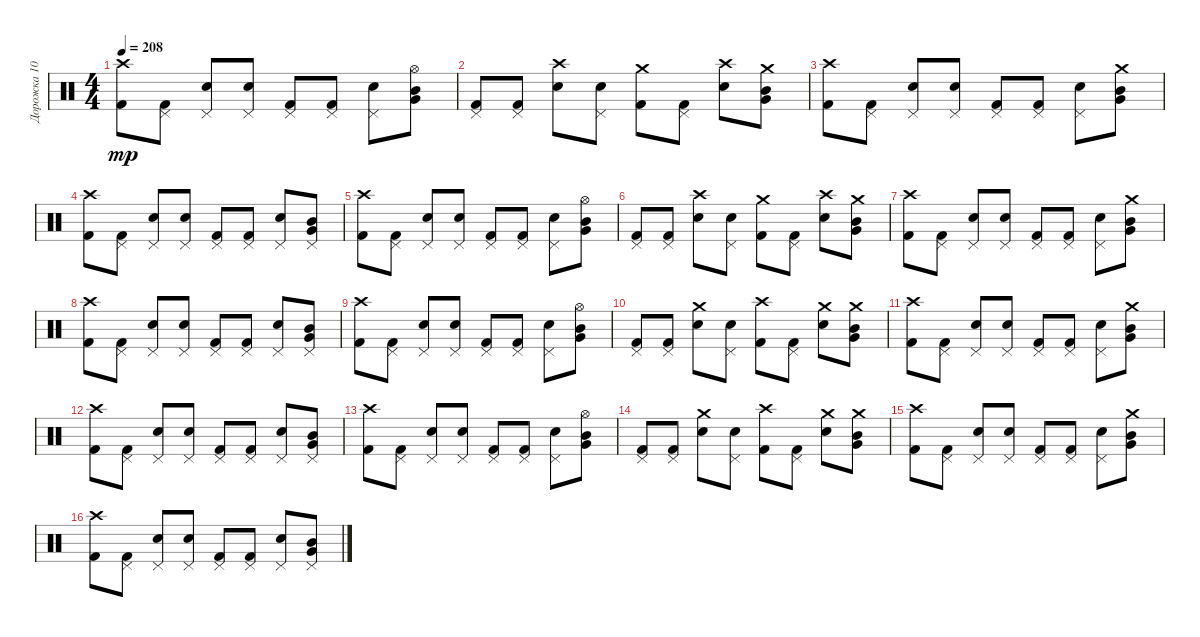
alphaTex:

\track ("Дорожка 10" "Дорожка 10") {instrument percussion}
\staff {score}
\articulation defaults
\ts (4 4)
\tempo 208
\clef neutral
\ks c
("Kick (hit) 2" "Crash high (hit)").8{dy mp} ("Kick (hit) 2" "Pedal Hi-Hat (hit)").8 ("Snare (hit) 2" "Pedal Hi-Hat (hit)").8 ("Snare (hit) 2" "Pedal Hi-Hat (hit)").8 ("Kick (hit) 2" "Pedal Hi-Hat (hit)").8 ("Kick (hit) 2" "Pedal Hi-Hat (hit)").8 ("Snare (hit) 2" "Pedal Hi-Hat (hit)").8 ("Mid Tom (hit)" "Very Low Tom (hit)" "Hi-Hat (open)").8 |
("Kick (hit) 2" "Pedal Hi-Hat (hit)").8 ("Kick (hit) 2" "Pedal Hi-Hat (hit)").8 ("Snare (hit) 2" "Crash high (hit)").8 ("Snare (hit) 2" "Pedal Hi-Hat (hit)").8 ("Kick (hit) 2" "Crash medium (hit)").8 ("Kick (hit) 2" "Pedal Hi-Hat (hit)").8 ("Snare (hit) 2" "Crash high (hit)").8 ("Mid Tom (hit)" "Very Low Tom (hit)" "Crash medium (hit)").8 |
("Kick (hit) 2" "Crash high (hit)").8 ("Kick (hit) 2" "Pedal Hi-Hat (hit)").8 ("Snare (hit) 2" "Pedal Hi-Hat (hit)").8 ("Snare (hit) 2" "Pedal Hi-Hat (hit)").8 ("Kick (hit) 2" "Pedal Hi-Hat (hit)").8 ("Kick (hit) 2" "Pedal Hi-Hat (hit)").8 ("Snare (hit) 2" "Pedal Hi-Hat (hit)").8 ("Mid Tom (hit)" "Very Low Tom (hit)" "Crash medium (hit)").8 |
("Kick (hit) 2" "Crash high (hit)").8 ("Kick (hit) 2" "Pedal Hi-Hat (hit)").8 ("Snare (hit) 2" "Pedal Hi-Hat (hit)").8 ("Snare (hit) 2" "Pedal Hi-Hat (hit)").8 ("Kick (hit) 2" "Pedal Hi-Hat (hit)").8 ("Kick (hit) 2" "Pedal Hi-Hat (hit)").8 ("Snare (hit) 2" "Pedal Hi-Hat (hit)").8 ("Mid Tom (hit)" "Very Low Tom (hit)" "Pedal Hi-Hat (hit)").8 |
("Kick (hit) 2" "Crash high (hit)").8 ("Kick (hit) 2" "Pedal Hi-Hat (hit)").8 ("Snare (hit) 2" "Pedal Hi-Hat (hit)").8 ("Snare (hit) 2" "Pedal Hi-Hat (hit)").8 ("Kick (hit) 2" "Pedal Hi-Hat (hit)").8 ("Kick (hit) 2" "Pedal Hi-Hat (hit)").8 ("Snare (hit) 2" "Pedal Hi-Hat (hit)").8 ("Mid Tom (hit)" "Very Low Tom (hit)" "Hi-Hat (open)").8 |
("Kick (hit) 2" "Pedal Hi-Hat (hit)").8 ("Kick (hit) 2" "Pedal Hi-Hat (hit)").8 ("Snare (hit) 2" "Crash high (hit)").8 ("Snare (hit) 2" "Pedal Hi-Hat (hit)").8 ("Kick (hit) 2" "Crash medium (hit)").8 ("Kick (hit) 2" "Pedal Hi-Hat (hit)").8 ("Snare (hit) 2" "Crash high (hit)").8 ("Mid Tom (hit)" "Very Low Tom (hit)" "Crash medium (hit)").8 |
("Kick (hit) 2" "Crash high (hit)").8 ("Kick (hit) 2" "Pedal Hi-Hat (hit)").8 ("Snare (hit) 2" "Pedal Hi-Hat (hit)").8 ("Snare (hit) 2" "Pedal Hi-Hat (hit)").8 ("Kick (hit) 2" "Pedal Hi-Hat (hit)").8 ("Kick (hit) 2" "Pedal Hi-Hat (hit)").8 ("Snare (hit) 2" "Pedal Hi-Hat (hit)").8 ("Mid Tom (hit)" "Very Low Tom (hit)" "Crash medium (hit)").8 |
("Kick (hit) 2" "Crash high (hit)").8 ("Kick (hit) 2" "Pedal Hi-Hat (hit)").8 ("Snare (hit) 2" "Pedal Hi-Hat (hit)").8 ("Snare (hit) 2" "Pedal Hi-Hat (hit)").8 ("Kick (hit) 2" "Pedal Hi-Hat (hit)").8 ("Kick (hit) 2" "Pedal Hi-Hat (hit)").8 ("Snare (hit) 2" "Pedal Hi-Hat (hit)").8 ("Mid Tom (hit)" "Very Low Tom (hit)" "Pedal Hi-Hat (hit)").8 |
("Kick (hit) 2" "Crash high (hit)").8 ("Kick (hit) 2" "Pedal Hi-Hat (hit)").8 ("Snare (hit) 2" "Pedal Hi-Hat (hit)").8 ("Snare (hit) 2" "Pedal Hi-Hat (hit)").8 ("Kick (hit) 2" "Pedal Hi-Hat (hit)").8 ("Kick (hit) 2" "Pedal Hi-Hat (hit)").8 ("Snare (hit) 2" "Pedal Hi-Hat (hit)").8 ("Mid Tom (hit)" "Very Low Tom (hit)" "Hi-Hat (open)").8 |
("Kick (hit) 2" "Pedal Hi-Hat (hit)").8 ("Kick (hit) 2" "Pedal Hi-Hat (hit)").8 ("Snare (hit) 2" "Crash medium (hit)").8 ("Snare (hit) 2" "Pedal Hi-Hat (hit)").8 ("Kick (hit) 2" "Crash high (hit)").8 ("Kick (hit) 2" "Pedal Hi-Hat (hit)").8 ("Snare (hit) 2" "Crash medium (hit)").8 ("Mid Tom (hit)" "Very Low Tom (hit)" "Crash medium (hit)").8 |
("Kick (hit) 2" "Crash high (hit)").8 ("Kick (hit) 2" "Pedal Hi-Hat (hit)").8 ("Snare (hit) 2" "Pedal Hi-Hat (hit)").8 ("Snare (hit) 2" "Pedal Hi-Hat (hit)").8 ("Kick (hit) 2" "Pedal Hi-Hat (hit)").8 ("Kick (hit) 2" "Pedal Hi-Hat (hit)").8 ("Snare (hit) 2" "Pedal Hi-Hat (hit)").8 ("Mid Tom (hit)" "Very Low Tom (hit)" "Crash medium (hit)").8 |
("Kick (hit) 2" "Crash high (hit)").8 ("Kick (hit) 2" "Pedal Hi-Hat (hit)").8 ("Snare (hit) 2" "Pedal Hi-Hat (hit)").8 ("Snare (hit) 2" "Pedal Hi-Hat (hit)").8 ("Kick (hit) 2" "Pedal Hi-Hat (hit)").8 ("Kick (hit) 2" "Pedal Hi-Hat (hit)").8 ("Snare (hit) 2" "Pedal Hi-Hat (hit)").8 ("Mid Tom (hit)" "Very Low Tom (hit)" "Pedal Hi-Hat (hit)").8 |
("Kick (hit) 2" "Crash high (hit)").8 ("Kick (hit) 2" "Pedal Hi-Hat (hit)").8 ("Snare (hit) 2" "Pedal Hi-Hat (hit)").8 ("Snare (hit) 2" "Pedal Hi-Hat (hit)").8 ("Kick (hit) 2" "Pedal Hi-Hat (hit)").8 ("Kick (hit) 2" "Pedal Hi-Hat (hit)").8 ("Snare (hit) 2" "Pedal Hi-Hat (hit)").8 ("Mid Tom (hit)" "Very Low Tom (hit)" "Hi-Hat (open)").8 |
("Kick (hit) 2" "Pedal Hi-Hat (hit)").8 ("Kick (hit) 2" "Pedal Hi-Hat (hit)").8 ("Snare (hit) 2" "Crash medium (hit)").8 ("Snare (hit) 2" "Pedal Hi-Hat (hit)").8 ("Kick (hit) 2" "Crash high (hit)").8 ("Kick (hit) 2" "Pedal Hi-Hat (hit)").8 ("Snare (hit) 2" "Crash medium (hit)").8 ("Mid Tom (hit)" "Very Low Tom (hit)" "Crash medium (hit)").8 |
("Kick (hit) 2" "Crash high (hit)").8 ("Kick (hit) 2" "Pedal Hi-Hat (hit)").8 ("Snare (hit) 2" "Pedal Hi-Hat (hit)").8 ("Snare (hit) 2" "Pedal Hi-Hat (hit)").8 ("Kick (hit) 2" "Pedal Hi-Hat (hit)").8 ("Kick (hit) 2" "Pedal Hi-Hat (hit)").8 ("Snare (hit) 2" "Pedal Hi-Hat (hit)").8 ("Mid Tom (hit)" "Very Low Tom (hit)" "Crash medium (hit)").8 |
("Kick (hit) 2" "Crash high (hit)").8 ("Kick (hit) 2" "Pedal Hi-Hat (hit)").8 ("Snare (hit) 2" "Pedal Hi-Hat (hit)").8 ("Snare (hit) 2" "Pedal Hi-Hat (hit)").8 ("Kick (hit) 2" "Pedal Hi-Hat (hit)").8 ("Kick (hit) 2" "Pedal Hi-Hat (hit)").8 ("Snare (hit) 2" "Pedal Hi-Hat (hit)").8 ("Mid Tom (hit)" "Very Low Tom (hit)" "Pedal Hi-Hat (hit)").8
